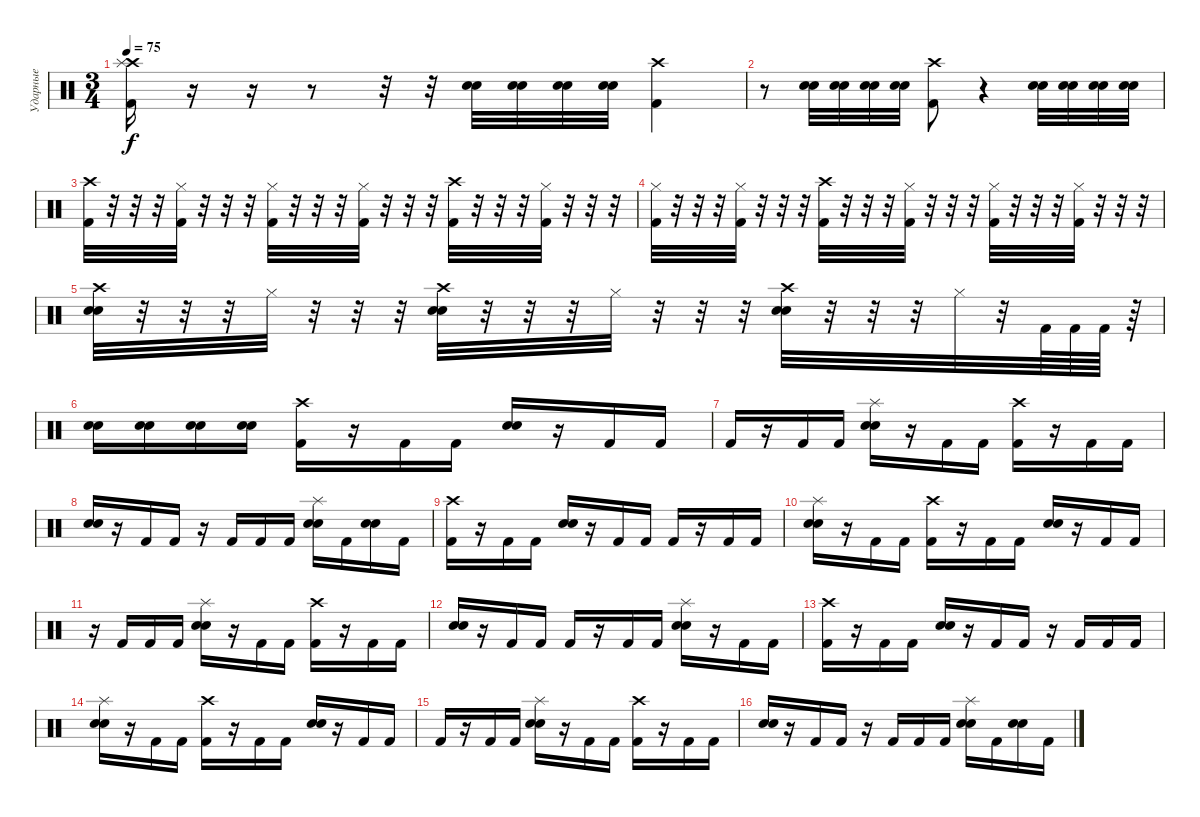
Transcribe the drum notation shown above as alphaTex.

\track ("Ударные" "Ударные") {instrument percussion}
\staff {score}
\articulation defaults
\ts (3 4)
\tempo 75
\clef neutral
\ks c
("Crash high (hit)" "Splash (hit)" "Kick (hit) 2").16{dy f} r.16 r.16 r.8 r.32 r.32 ("Electric Snare (hit)" "Snare (hit) 2").32 ("Electric Snare (hit)" "Snare (hit) 2").32 ("Electric Snare (hit)" "Snare (hit) 2").32 ("Electric Snare (hit)" "Snare (hit) 2").32 ("Crash high (hit)" "Kick (hit) 2").4 |
r.8 ("Electric Snare (hit)" "Snare (hit) 2").32 ("Electric Snare (hit)" "Snare (hit) 2").32 ("Electric Snare (hit)" "Snare (hit) 2").32 ("Electric Snare (hit)" "Snare (hit) 2").32 ("Crash high (hit)" "Kick (hit) 2").8 r.4 ("Electric Snare (hit)" "Snare (hit) 2").32 ("Electric Snare (hit)" "Snare (hit) 2").32 ("Electric Snare (hit)" "Snare (hit) 2").32 ("Electric Snare (hit)" "Snare (hit) 2").32 |
("Crash high (hit)" "Kick (hit) 2").32 r.32 r.32 r.32 ("Hi-Hat (closed)" "Kick (hit) 2").32 r.32 r.32 r.32 ("Hi-Hat (closed)" "Kick (hit) 2").32 r.32 r.32 r.32 ("Hi-Hat (closed)" "Kick (hit) 2").32 r.32 r.32 r.32 ("Crash high (hit)" "Kick (hit) 2").32 r.32 r.32 r.32 ("Hi-Hat (closed)" "Kick (hit) 2").32 r.32 r.32 r.32 |
("Hi-Hat (closed)" "Kick (hit) 2").32 r.32 r.32 r.32 ("Hi-Hat (closed)" "Kick (hit) 2").32 r.32 r.32 r.32 ("Crash high (hit)" "Kick (hit) 2").32 r.32 r.32 r.32 ("Hi-Hat (closed)" "Kick (hit) 2").32 r.32 r.32 r.32 ("Hi-Hat (closed)" "Kick (hit) 2").32 r.32 r.32 r.32 ("Hi-Hat (closed)" "Kick (hit) 2").32 r.32 r.32 r.32 |
("Crash high (hit)" "Electric Snare (hit)" "Snare (hit) 2").32 r.32 r.32 r.32 "Hi-Hat (closed)".32 r.32 r.32 r.32 ("Crash high (hit)" "Electric Snare (hit)" "Snare (hit) 2").32 r.32 r.32 r.32 "Hi-Hat (closed)".32 r.32 r.32 r.32 ("Crash high (hit)" "Electric Snare (hit)" "Snare (hit) 2").32 r.32 r.32 r.32 "Hi-Hat (closed)".32 r.32 "Kick (hit) 2".64 "Kick (hit) 2".64 "Kick (hit) 2".64 r.64 |
("Electric Snare (hit)" "Snare (hit) 2").16 ("Electric Snare (hit)" "Snare (hit) 2").16 ("Electric Snare (hit)" "Snare (hit) 2").16 ("Electric Snare (hit)" "Snare (hit) 2").16 ("Crash high (hit)" "Kick (hit) 2").16 r.16 "Kick (hit) 2".16 "Kick (hit) 2".16 ("Electric Snare (hit)" "Snare (hit) 2").16 r.16 "Kick (hit) 2".16 "Kick (hit) 2".16 |
"Kick (hit) 2".16 r.16 "Kick (hit) 2".16 "Kick (hit) 2".16 ("Splash (hit)" "Electric Snare (hit)" "Snare (hit) 2").16 r.16 "Kick (hit) 2".16 "Kick (hit) 2".16 ("Crash high (hit)" "Kick (hit) 2").16 r.16 "Kick (hit) 2".16 "Kick (hit) 2".16 |
("Electric Snare (hit)" "Snare (hit) 2").16 r.16 "Kick (hit) 2".16 "Kick (hit) 2".16 r.16 "Kick (hit) 2".16 "Kick (hit) 2".16 "Kick (hit) 2".16 ("Splash (hit)" "Electric Snare (hit)" "Snare (hit) 2").16 "Kick (hit) 2".16 ("Electric Snare (hit)" "Snare (hit) 2").16 "Kick (hit) 2".16 |
("Crash high (hit)" "Kick (hit) 2").16 r.16 "Kick (hit) 2".16 "Kick (hit) 2".16 ("Electric Snare (hit)" "Snare (hit) 2").16 r.16 "Kick (hit) 2".16 "Kick (hit) 2".16 "Kick (hit) 2".16 r.16 "Kick (hit) 2".16 "Kick (hit) 2".16 |
("Splash (hit)" "Electric Snare (hit)" "Snare (hit) 2").16 r.16 "Kick (hit) 2".16 "Kick (hit) 2".16 ("Crash high (hit)" "Kick (hit) 2").16 r.16 "Kick (hit) 2".16 "Kick (hit) 2".16 ("Electric Snare (hit)" "Snare (hit) 2").16 r.16 "Kick (hit) 2".16 "Kick (hit) 2".16 |
r.16 "Kick (hit) 2".16 "Kick (hit) 2".16 "Kick (hit) 2".16 ("Splash (hit)" "Electric Snare (hit)" "Snare (hit) 2").16 r.16 "Kick (hit) 2".16 "Kick (hit) 2".16 ("Crash high (hit)" "Kick (hit) 2").16 r.16 "Kick (hit) 2".16 "Kick (hit) 2".16 |
("Electric Snare (hit)" "Snare (hit) 2").16 r.16 "Kick (hit) 2".16 "Kick (hit) 2".16 "Kick (hit) 2".16 r.16 "Kick (hit) 2".16 "Kick (hit) 2".16 ("Splash (hit)" "Electric Snare (hit)" "Snare (hit) 2").16 r.16 "Kick (hit) 2".16 "Kick (hit) 2".16 |
("Crash high (hit)" "Kick (hit) 2").16 r.16 "Kick (hit) 2".16 "Kick (hit) 2".16 ("Electric Snare (hit)" "Snare (hit) 2").16 r.16 "Kick (hit) 2".16 "Kick (hit) 2".16 r.16 "Kick (hit) 2".16 "Kick (hit) 2".16 "Kick (hit) 2".16 |
("Splash (hit)" "Electric Snare (hit)" "Snare (hit) 2").16 r.16 "Kick (hit) 2".16 "Kick (hit) 2".16 ("Crash high (hit)" "Kick (hit) 2").16 r.16 "Kick (hit) 2".16 "Kick (hit) 2".16 ("Electric Snare (hit)" "Snare (hit) 2").16 r.16 "Kick (hit) 2".16 "Kick (hit) 2".16 |
"Kick (hit) 2".16 r.16 "Kick (hit) 2".16 "Kick (hit) 2".16 ("Splash (hit)" "Electric Snare (hit)" "Snare (hit) 2").16 r.16 "Kick (hit) 2".16 "Kick (hit) 2".16 ("Crash high (hit)" "Kick (hit) 2").16 r.16 "Kick (hit) 2".16 "Kick (hit) 2".16 |
("Electric Snare (hit)" "Snare (hit) 2").16 r.16 "Kick (hit) 2".16 "Kick (hit) 2".16 r.16 "Kick (hit) 2".16 "Kick (hit) 2".16 "Kick (hit) 2".16 ("Splash (hit)" "Electric Snare (hit)" "Snare (hit) 2").16 "Kick (hit) 2".16 ("Electric Snare (hit)" "Snare (hit) 2").16 "Kick (hit) 2".16
